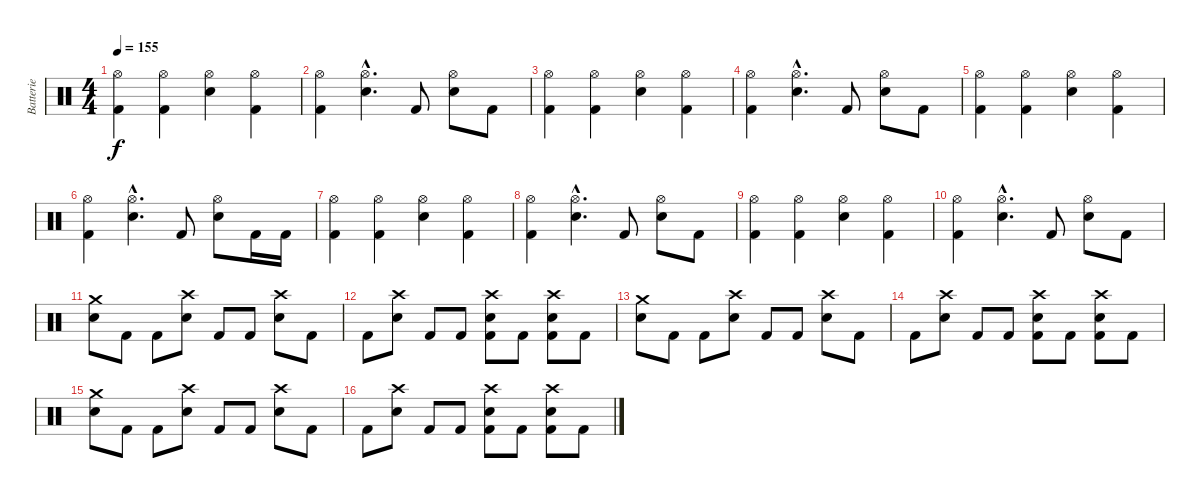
\track ("Batterie" "Batterie") {instrument percussion}
\staff {score}
\articulation defaults
\ts (4 4)
\tempo 155
\clef neutral
\ks c
("Hi-Hat (open)" "Kick (hit) 2").4{dy f} ("Hi-Hat (open)" "Kick (hit) 2").4 ("Hi-Hat (open)" "Electric Snare (hit)").4 ("Hi-Hat (open)" "Kick (hit) 2").4 |
("Hi-Hat (open)" "Kick (hit) 2").4 ("Hi-Hat (open)"{hac} "Electric Snare (hit)"{hac}).4{d} "Kick (hit) 2".8 ("Hi-Hat (open)" "Electric Snare (hit)").8 "Kick (hit) 2".8 |
("Hi-Hat (open)" "Kick (hit) 2").4 ("Hi-Hat (open)" "Kick (hit) 2").4 ("Hi-Hat (open)" "Electric Snare (hit)").4 ("Hi-Hat (open)" "Kick (hit) 2").4 |
("Hi-Hat (open)" "Kick (hit) 2").4 ("Hi-Hat (open)"{hac} "Electric Snare (hit)"{hac}).4{d} "Kick (hit) 2".8 ("Hi-Hat (open)" "Electric Snare (hit)").8 "Kick (hit) 2".8 |
("Hi-Hat (open)" "Kick (hit) 2").4 ("Hi-Hat (open)" "Kick (hit) 2").4 ("Hi-Hat (open)" "Electric Snare (hit)").4 ("Hi-Hat (open)" "Kick (hit) 2").4 |
("Hi-Hat (open)" "Kick (hit) 2").4 ("Hi-Hat (open)"{hac} "Electric Snare (hit)"{hac}).4{d} "Kick (hit) 2".8 ("Hi-Hat (open)" "Electric Snare (hit)").8 "Kick (hit) 2".16 "Kick (hit) 2".16 |
("Hi-Hat (open)" "Kick (hit) 2").4 ("Hi-Hat (open)" "Kick (hit) 2").4 ("Hi-Hat (open)" "Electric Snare (hit)").4 ("Hi-Hat (open)" "Kick (hit) 2").4 |
("Hi-Hat (open)" "Kick (hit) 2").4 ("Hi-Hat (open)"{hac} "Electric Snare (hit)"{hac}).4{d} "Kick (hit) 2".8 ("Hi-Hat (open)" "Electric Snare (hit)").8 "Kick (hit) 2".8 |
("Hi-Hat (open)" "Kick (hit) 2").4 ("Hi-Hat (open)" "Kick (hit) 2").4 ("Hi-Hat (open)" "Electric Snare (hit)").4 ("Hi-Hat (open)" "Kick (hit) 2").4 |
("Hi-Hat (open)" "Kick (hit) 2").4 ("Hi-Hat (open)"{hac} "Electric Snare (hit)"{hac}).4{d} "Kick (hit) 2".8 ("Hi-Hat (open)" "Electric Snare (hit)").8 "Kick (hit) 2".8 |
\section ("" "")
("Crash medium (hit)" "Electric Snare (hit)").8 "Kick (hit) 2".8 "Kick (hit) 2".8 ("Crash high (hit)" "Electric Snare (hit)").8 "Kick (hit) 2".8 "Kick (hit) 2".8 ("Crash high (hit)" "Electric Snare (hit)").8 "Kick (hit) 2".8 |
"Kick (hit) 2".8 ("Crash high (hit)" "Electric Snare (hit)").8 "Kick (hit) 2".8 "Kick (hit) 2".8 ("Crash high (hit)" "Electric Snare (hit)" "Kick (hit) 2").8 "Kick (hit) 2".8 ("Crash high (hit)" "Electric Snare (hit)" "Kick (hit) 2").8 "Kick (hit) 2".8 |
("Crash medium (hit)" "Electric Snare (hit)").8 "Kick (hit) 2".8 "Kick (hit) 2".8 ("Crash high (hit)" "Electric Snare (hit)").8 "Kick (hit) 2".8 "Kick (hit) 2".8 ("Crash high (hit)" "Electric Snare (hit)").8 "Kick (hit) 2".8 |
"Kick (hit) 2".8 ("Crash high (hit)" "Electric Snare (hit)").8 "Kick (hit) 2".8 "Kick (hit) 2".8 ("Crash high (hit)" "Electric Snare (hit)" "Kick (hit) 2").8 "Kick (hit) 2".8 ("Crash high (hit)" "Electric Snare (hit)" "Kick (hit) 2").8 "Kick (hit) 2".8 |
("Crash medium (hit)" "Electric Snare (hit)").8 "Kick (hit) 2".8 "Kick (hit) 2".8 ("Crash high (hit)" "Electric Snare (hit)").8 "Kick (hit) 2".8 "Kick (hit) 2".8 ("Crash high (hit)" "Electric Snare (hit)").8 "Kick (hit) 2".8 |
"Kick (hit) 2".8 ("Crash high (hit)" "Electric Snare (hit)").8 "Kick (hit) 2".8 "Kick (hit) 2".8 ("Crash high (hit)" "Electric Snare (hit)" "Kick (hit) 2").8 "Kick (hit) 2".8 ("Crash high (hit)" "Electric Snare (hit)" "Kick (hit) 2").8 "Kick (hit) 2".8
